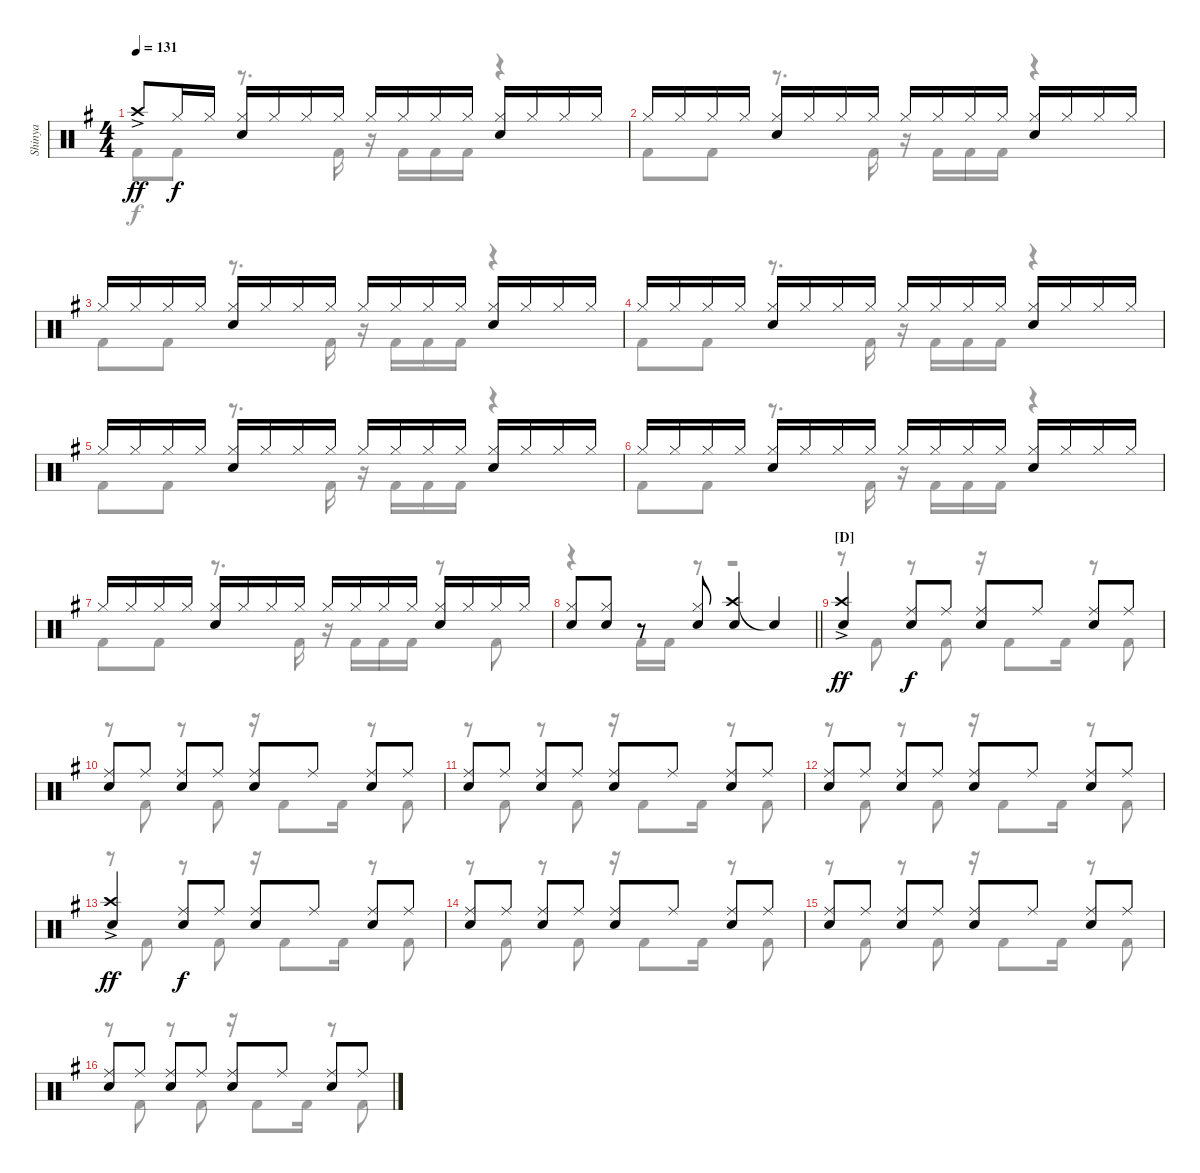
\track ("Shinya" "Shinya") {instrument percussion}
\staff {score}
\articulation defaults
\voice
\ts (4 4)
\tempo 131
\clef neutral
\ks eminor "Crash high (hit)"{ac}.8{dy ff} "Hi-Hat (closed)".16{dy f} "Hi-Hat (closed)".16
("Hi-Hat (closed)" "Snare (hit) 2").16 "Hi-Hat (closed)".16 "Hi-Hat (closed)".16 "Hi-Hat (closed)".16 "Hi-Hat (closed)".16 "Hi-Hat (closed)".16 "Hi-Hat (closed)".16 "Hi-Hat (closed)".16 ("Hi-Hat (closed)" "Snare (hit) 2").16 "Hi-Hat (closed)".16 "Hi-Hat (closed)".16 "Hi-Hat (closed)".16 |
"Hi-Hat (closed)".16 "Hi-Hat (closed)".16 "Hi-Hat (closed)".16 "Hi-Hat (closed)".16 ("Hi-Hat (closed)" "Snare (hit) 2").16 "Hi-Hat (closed)".16 "Hi-Hat (closed)".16 "Hi-Hat (closed)".16 "Hi-Hat (closed)".16 "Hi-Hat (closed)".16 "Hi-Hat (closed)".16 "Hi-Hat (closed)".16 ("Hi-Hat (closed)" "Snare (hit) 2").16 "Hi-Hat (closed)".16 "Hi-Hat (closed)".16 "Hi-Hat (closed)".16 |
"Hi-Hat (closed)".16 "Hi-Hat (closed)".16 "Hi-Hat (closed)".16 "Hi-Hat (closed)".16 ("Hi-Hat (closed)" "Snare (hit) 2").16 "Hi-Hat (closed)".16 "Hi-Hat (closed)".16 "Hi-Hat (closed)".16 "Hi-Hat (closed)".16 "Hi-Hat (closed)".16 "Hi-Hat (closed)".16 "Hi-Hat (closed)".16 ("Hi-Hat (closed)" "Snare (hit) 2").16 "Hi-Hat (closed)".16 "Hi-Hat (closed)".16 "Hi-Hat (closed)".16 |
"Hi-Hat (closed)".16 "Hi-Hat (closed)".16 "Hi-Hat (closed)".16 "Hi-Hat (closed)".16 ("Hi-Hat (closed)" "Snare (hit) 2").16 "Hi-Hat (closed)".16 "Hi-Hat (closed)".16 "Hi-Hat (closed)".16 "Hi-Hat (closed)".16 "Hi-Hat (closed)".16 "Hi-Hat (closed)".16 "Hi-Hat (closed)".16 ("Hi-Hat (closed)" "Snare (hit) 2").16 "Hi-Hat (closed)".16 "Hi-Hat (closed)".16 "Hi-Hat (closed)".16 |
"Hi-Hat (closed)".16 "Hi-Hat (closed)".16 "Hi-Hat (closed)".16 "Hi-Hat (closed)".16 ("Hi-Hat (closed)" "Snare (hit) 2").16 "Hi-Hat (closed)".16 "Hi-Hat (closed)".16 "Hi-Hat (closed)".16 "Hi-Hat (closed)".16 "Hi-Hat (closed)".16 "Hi-Hat (closed)".16 "Hi-Hat (closed)".16 ("Hi-Hat (closed)" "Snare (hit) 2").16 "Hi-Hat (closed)".16 "Hi-Hat (closed)".16 "Hi-Hat (closed)".16 |
"Hi-Hat (closed)".16 "Hi-Hat (closed)".16 "Hi-Hat (closed)".16 "Hi-Hat (closed)".16 ("Hi-Hat (closed)" "Snare (hit) 2").16 "Hi-Hat (closed)".16 "Hi-Hat (closed)".16 "Hi-Hat (closed)".16 "Hi-Hat (closed)".16 "Hi-Hat (closed)".16 "Hi-Hat (closed)".16 "Hi-Hat (closed)".16 ("Hi-Hat (closed)" "Snare (hit) 2").16 "Hi-Hat (closed)".16 "Hi-Hat (closed)".16 "Hi-Hat (closed)".16 |
"Hi-Hat (closed)".16 "Hi-Hat (closed)".16 "Hi-Hat (closed)".16 "Hi-Hat (closed)".16 ("Hi-Hat (closed)" "Snare (hit) 2").16 "Hi-Hat (closed)".16 "Hi-Hat (closed)".16 "Hi-Hat (closed)".16 "Hi-Hat (closed)".16 "Hi-Hat (closed)".16 "Hi-Hat (closed)".16 "Hi-Hat (closed)".16 ("Hi-Hat (closed)" "Snare (hit) 2").16 "Hi-Hat (closed)".16 "Hi-Hat (closed)".16 "Hi-Hat (closed)".16 |
\barLineRight lightlight
("Hi-Hat (closed)" "Snare (hit) 2").8 ("Hi-Hat (closed)" "Snare (hit) 2").8 r.8 ("Hi-Hat (closed)" "Snare (hit) 2").8 ("Crash high (hit)" "Snare (hit) 2").4 "Snare (hit)"{t}.4 |
\section ("" "[D]")
("Crash high (hit)"{ac} "Snare (hit) 2").4{dy ff} ("Ride (middle)" "Snare (hit) 2").8{dy f} "Ride (middle)".8 ("Ride (middle)" "Snare (hit) 2").8 "Ride (middle)".8 ("Ride (middle)" "Snare (hit) 2").8 "Ride (middle)".8 |
("Ride (middle)" "Snare (hit) 2").8 "Ride (middle)".8 ("Ride (middle)" "Snare (hit) 2").8 "Ride (middle)".8 ("Ride (middle)" "Snare (hit) 2").8 "Ride (middle)".8 ("Ride (middle)" "Snare (hit) 2").8 "Ride (middle)".8 |
("Ride (middle)" "Snare (hit) 2").8 "Ride (middle)".8 ("Ride (middle)" "Snare (hit) 2").8 "Ride (middle)".8 ("Ride (middle)" "Snare (hit) 2").8 "Ride (middle)".8 ("Ride (middle)" "Snare (hit) 2").8 "Ride (middle)".8 |
("Ride (middle)" "Snare (hit) 2").8 "Ride (middle)".8 ("Ride (middle)" "Snare (hit) 2").8 "Ride (middle)".8 ("Ride (middle)" "Snare (hit) 2").8 "Ride (middle)".8 ("Ride (middle)" "Snare (hit) 2").8 "Ride (middle)".8 |
("Crash high (hit)"{ac} "Snare (hit) 2").4{dy ff} ("Ride (middle)" "Snare (hit) 2").8{dy f} "Ride (middle)".8 ("Ride (middle)" "Snare (hit) 2").8 "Ride (middle)".8 ("Ride (middle)" "Snare (hit) 2").8 "Ride (middle)".8 |
("Ride (middle)" "Snare (hit) 2").8 "Ride (middle)".8 ("Ride (middle)" "Snare (hit) 2").8 "Ride (middle)".8 ("Ride (middle)" "Snare (hit) 2").8 "Ride (middle)".8 ("Ride (middle)" "Snare (hit) 2").8 "Ride (middle)".8 |
("Ride (middle)" "Snare (hit) 2").8 "Ride (middle)".8 ("Ride (middle)" "Snare (hit) 2").8 "Ride (middle)".8 ("Ride (middle)" "Snare (hit) 2").8 "Ride (middle)".8 ("Ride (middle)" "Snare (hit) 2").8 "Ride (middle)".8 |
("Ride (middle)" "Snare (hit) 2").8 "Ride (middle)".8 ("Ride (middle)" "Snare (hit) 2").8 "Ride (middle)".8 ("Ride (middle)" "Snare (hit) 2").8 "Ride (middle)".8 ("Ride (middle)" "Snare (hit) 2").8 "Ride (middle)".8
\voice
\clef neutral
\ottava regular
\simile none
\ks eminor "Kick (hit) 2".8{dy f} "Kick (hit) 2".8
r.8{d} "Kick (hit) 2".16 r.16 "Kick (hit) 2".16 "Kick (hit) 2".16 "Kick (hit) 2".16 r.4 |
"Kick (hit) 2".8 "Kick (hit) 2".8 r.8{d} "Kick (hit) 2".16 r.16 "Kick (hit) 2".16 "Kick (hit) 2".16 "Kick (hit) 2".16 r.4 |
"Kick (hit) 2".8 "Kick (hit) 2".8 r.8{d} "Kick (hit) 2".16 r.16 "Kick (hit) 2".16 "Kick (hit) 2".16 "Kick (hit) 2".16 r.4 |
"Kick (hit) 2".8 "Kick (hit) 2".8 r.8{d} "Kick (hit) 2".16 r.16 "Kick (hit) 2".16 "Kick (hit) 2".16 "Kick (hit) 2".16 r.4 |
"Kick (hit) 2".8 "Kick (hit) 2".8 r.8{d} "Kick (hit) 2".16 r.16 "Kick (hit) 2".16 "Kick (hit) 2".16 "Kick (hit) 2".16 r.4 |
"Kick (hit) 2".8 "Kick (hit) 2".8 r.8{d} "Kick (hit) 2".16 r.16 "Kick (hit) 2".16 "Kick (hit) 2".16 "Kick (hit) 2".16 r.4 |
"Kick (hit) 2".8 "Kick (hit) 2".8 r.8{d} "Kick (hit) 2".16 r.16 "Kick (hit) 2".16 "Kick (hit) 2".16 "Kick (hit) 2".16 r.8 "Kick (hit) 2".8 |
\barLineRight lightlight
r.4 "Kick (hit) 2".16 "Kick (hit) 2".16 r.8 r.2 |
r.8 "Kick (hit) 2".8 r.8 "Kick (hit) 2".8 r.16 "Kick (hit) 2".8 "Kick (hit) 2".16 r.8 "Kick (hit) 2".8 |
r.8 "Kick (hit) 2".8 r.8 "Kick (hit) 2".8 r.16 "Kick (hit) 2".8 "Kick (hit) 2".16 r.8 "Kick (hit) 2".8 |
r.8 "Kick (hit) 2".8 r.8 "Kick (hit) 2".8 r.16 "Kick (hit) 2".8 "Kick (hit) 2".16 r.8 "Kick (hit) 2".8 |
r.8 "Kick (hit) 2".8 r.8 "Kick (hit) 2".8 r.16 "Kick (hit) 2".8 "Kick (hit) 2".16 r.8 "Kick (hit) 2".8 |
r.8 "Kick (hit) 2".8 r.8 "Kick (hit) 2".8 r.16 "Kick (hit) 2".8 "Kick (hit) 2".16 r.8 "Kick (hit) 2".8 |
r.8 "Kick (hit) 2".8 r.8 "Kick (hit) 2".8 r.16 "Kick (hit) 2".8 "Kick (hit) 2".16 r.8 "Kick (hit) 2".8 |
r.8 "Kick (hit) 2".8 r.8 "Kick (hit) 2".8 r.16 "Kick (hit) 2".8 "Kick (hit) 2".16 r.8 "Kick (hit) 2".8 |
r.8 "Kick (hit) 2".8 r.8 "Kick (hit) 2".8 r.16 "Kick (hit) 2".8 "Kick (hit) 2".16 r.8 "Kick (hit) 2".8
